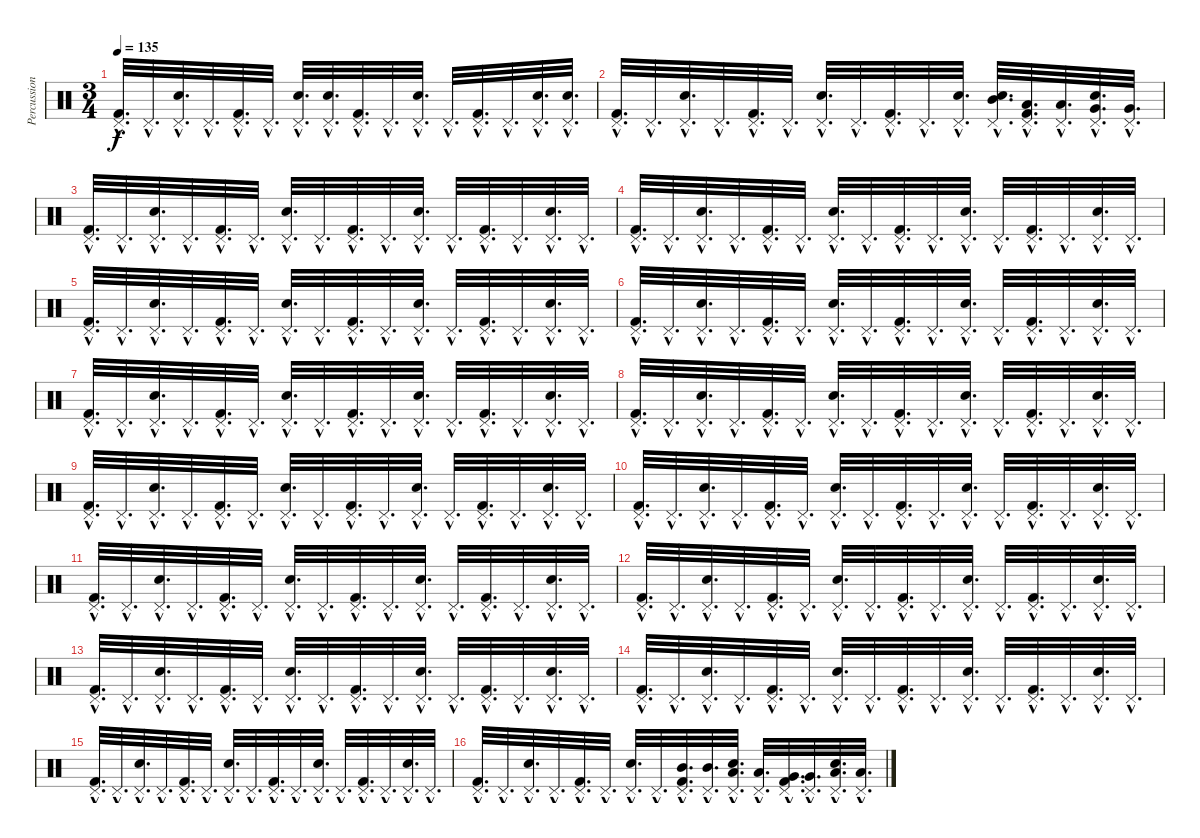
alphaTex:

\track ("Percussion" "Percussion") {instrument percussion}
\staff {score}
\articulation defaults
\ts (3 4)
\tempo 135
\clef neutral
\ks c
("Kick (hit) 2"{hac} "Pedal Hi-Hat (hit)"{hac}).32{d dy f} "Pedal Hi-Hat (hit)"{hac}.32{d} ("Pedal Hi-Hat (hit)"{hac} "Electric Snare (hit)"{hac}).32{d} "Pedal Hi-Hat (hit)"{hac}.32{d} ("Kick (hit) 2"{hac} "Pedal Hi-Hat (hit)"{hac}).32{d} "Pedal Hi-Hat (hit)"{hac}.32{d} ("Pedal Hi-Hat (hit)"{hac} "Electric Snare (hit)"{hac}).32{d} ("Pedal Hi-Hat (hit)"{hac} "Electric Snare (hit)"{hac}).32{d} ("Kick (hit) 2"{hac} "Pedal Hi-Hat (hit)"{hac}).32{d} "Pedal Hi-Hat (hit)"{hac}.32{d} ("Pedal Hi-Hat (hit)"{hac} "Electric Snare (hit)"{hac}).32{d} "Pedal Hi-Hat (hit)"{hac}.32{d} ("Kick (hit) 2"{hac} "Pedal Hi-Hat (hit)"{hac}).32{d} "Pedal Hi-Hat (hit)"{hac}.32{d} ("Pedal Hi-Hat (hit)"{hac} "Electric Snare (hit)"{hac}).32{d} ("Pedal Hi-Hat (hit)"{hac} "Electric Snare (hit)"{hac}).32{d} |
("Kick (hit) 2"{hac} "Pedal Hi-Hat (hit)"{hac}).32{d} "Pedal Hi-Hat (hit)"{hac}.32{d} ("Pedal Hi-Hat (hit)"{hac} "Electric Snare (hit)"{hac}).32{d} "Pedal Hi-Hat (hit)"{hac}.32{d} ("Kick (hit) 2"{hac} "Pedal Hi-Hat (hit)"{hac}).32{d} "Pedal Hi-Hat (hit)"{hac}.32{d} ("Pedal Hi-Hat (hit)"{hac} "Electric Snare (hit)"{hac}).32{d} "Pedal Hi-Hat (hit)"{hac}.32{d} ("Kick (hit) 2"{hac} "Pedal Hi-Hat (hit)"{hac}).32{d} "Pedal Hi-Hat (hit)"{hac}.32{d} ("Pedal Hi-Hat (hit)"{hac} "Electric Snare (hit)"{hac}).32{d} ("Pedal Hi-Hat (hit)"{hac} "Electric Snare (hit)"{hac} "Mid Tom (hit)"{hac}).32{d} ("Kick (hit) 2"{hac} "Pedal Hi-Hat (hit)"{hac} "Low Tom (hit)"{hac}).32{d} ("Pedal Hi-Hat (hit)"{hac} "Low Tom (hit)"{hac}).32{d} ("Pedal Hi-Hat (hit)"{hac} "Electric Snare (hit)"{hac} "Very Low Tom (hit)"{hac}).32{d} ("Pedal Hi-Hat (hit)"{hac} "Very Low Tom (hit)"{hac}).32{d} |
("Kick (hit) 2"{hac} "Pedal Hi-Hat (hit)"{hac}).32{d} "Pedal Hi-Hat (hit)"{hac}.32{d} ("Pedal Hi-Hat (hit)"{hac} "Electric Snare (hit)"{hac}).32{d} "Pedal Hi-Hat (hit)"{hac}.32{d} ("Kick (hit) 2"{hac} "Pedal Hi-Hat (hit)"{hac}).32{d} "Pedal Hi-Hat (hit)"{hac}.32{d} ("Pedal Hi-Hat (hit)"{hac} "Electric Snare (hit)"{hac}).32{d} "Pedal Hi-Hat (hit)"{hac}.32{d} ("Kick (hit) 2"{hac} "Pedal Hi-Hat (hit)"{hac}).32{d} "Pedal Hi-Hat (hit)"{hac}.32{d} ("Pedal Hi-Hat (hit)"{hac} "Electric Snare (hit)"{hac}).32{d} "Pedal Hi-Hat (hit)"{hac}.32{d} ("Kick (hit) 2"{hac} "Pedal Hi-Hat (hit)"{hac}).32{d} "Pedal Hi-Hat (hit)"{hac}.32{d} ("Pedal Hi-Hat (hit)"{hac} "Electric Snare (hit)"{hac}).32{d} "Pedal Hi-Hat (hit)"{hac}.32{d} |
("Kick (hit) 2"{hac} "Pedal Hi-Hat (hit)"{hac}).32{d} "Pedal Hi-Hat (hit)"{hac}.32{d} ("Pedal Hi-Hat (hit)"{hac} "Electric Snare (hit)"{hac}).32{d} "Pedal Hi-Hat (hit)"{hac}.32{d} ("Kick (hit) 2"{hac} "Pedal Hi-Hat (hit)"{hac}).32{d} "Pedal Hi-Hat (hit)"{hac}.32{d} ("Pedal Hi-Hat (hit)"{hac} "Electric Snare (hit)"{hac}).32{d} "Pedal Hi-Hat (hit)"{hac}.32{d} ("Kick (hit) 2"{hac} "Pedal Hi-Hat (hit)"{hac}).32{d} "Pedal Hi-Hat (hit)"{hac}.32{d} ("Pedal Hi-Hat (hit)"{hac} "Electric Snare (hit)"{hac}).32{d} "Pedal Hi-Hat (hit)"{hac}.32{d} ("Kick (hit) 2"{hac} "Pedal Hi-Hat (hit)"{hac}).32{d} "Pedal Hi-Hat (hit)"{hac}.32{d} ("Pedal Hi-Hat (hit)"{hac} "Electric Snare (hit)"{hac}).32{d} "Pedal Hi-Hat (hit)"{hac}.32{d} |
("Kick (hit) 2"{hac} "Pedal Hi-Hat (hit)"{hac}).32{d} "Pedal Hi-Hat (hit)"{hac}.32{d} ("Pedal Hi-Hat (hit)"{hac} "Electric Snare (hit)"{hac}).32{d} "Pedal Hi-Hat (hit)"{hac}.32{d} ("Kick (hit) 2"{hac} "Pedal Hi-Hat (hit)"{hac}).32{d} "Pedal Hi-Hat (hit)"{hac}.32{d} ("Pedal Hi-Hat (hit)"{hac} "Electric Snare (hit)"{hac}).32{d} "Pedal Hi-Hat (hit)"{hac}.32{d} ("Kick (hit) 2"{hac} "Pedal Hi-Hat (hit)"{hac}).32{d} "Pedal Hi-Hat (hit)"{hac}.32{d} ("Pedal Hi-Hat (hit)"{hac} "Electric Snare (hit)"{hac}).32{d} "Pedal Hi-Hat (hit)"{hac}.32{d} ("Kick (hit) 2"{hac} "Pedal Hi-Hat (hit)"{hac}).32{d} "Pedal Hi-Hat (hit)"{hac}.32{d} ("Pedal Hi-Hat (hit)"{hac} "Electric Snare (hit)"{hac}).32{d} "Pedal Hi-Hat (hit)"{hac}.32{d} |
("Kick (hit) 2"{hac} "Pedal Hi-Hat (hit)"{hac}).32{d} "Pedal Hi-Hat (hit)"{hac}.32{d} ("Pedal Hi-Hat (hit)"{hac} "Electric Snare (hit)"{hac}).32{d} "Pedal Hi-Hat (hit)"{hac}.32{d} ("Kick (hit) 2"{hac} "Pedal Hi-Hat (hit)"{hac}).32{d} "Pedal Hi-Hat (hit)"{hac}.32{d} ("Pedal Hi-Hat (hit)"{hac} "Electric Snare (hit)"{hac}).32{d} "Pedal Hi-Hat (hit)"{hac}.32{d} ("Kick (hit) 2"{hac} "Pedal Hi-Hat (hit)"{hac}).32{d} "Pedal Hi-Hat (hit)"{hac}.32{d} ("Pedal Hi-Hat (hit)"{hac} "Electric Snare (hit)"{hac}).32{d} "Pedal Hi-Hat (hit)"{hac}.32{d} ("Kick (hit) 2"{hac} "Pedal Hi-Hat (hit)"{hac}).32{d} "Pedal Hi-Hat (hit)"{hac}.32{d} ("Pedal Hi-Hat (hit)"{hac} "Electric Snare (hit)"{hac}).32{d} "Pedal Hi-Hat (hit)"{hac}.32{d} |
("Kick (hit) 2"{hac} "Pedal Hi-Hat (hit)"{hac}).32{d} "Pedal Hi-Hat (hit)"{hac}.32{d} ("Pedal Hi-Hat (hit)"{hac} "Electric Snare (hit)"{hac}).32{d} "Pedal Hi-Hat (hit)"{hac}.32{d} ("Kick (hit) 2"{hac} "Pedal Hi-Hat (hit)"{hac}).32{d} "Pedal Hi-Hat (hit)"{hac}.32{d} ("Pedal Hi-Hat (hit)"{hac} "Electric Snare (hit)"{hac}).32{d} "Pedal Hi-Hat (hit)"{hac}.32{d} ("Kick (hit) 2"{hac} "Pedal Hi-Hat (hit)"{hac}).32{d} "Pedal Hi-Hat (hit)"{hac}.32{d} ("Pedal Hi-Hat (hit)"{hac} "Electric Snare (hit)"{hac}).32{d} "Pedal Hi-Hat (hit)"{hac}.32{d} ("Kick (hit) 2"{hac} "Pedal Hi-Hat (hit)"{hac}).32{d} "Pedal Hi-Hat (hit)"{hac}.32{d} ("Pedal Hi-Hat (hit)"{hac} "Electric Snare (hit)"{hac}).32{d} "Pedal Hi-Hat (hit)"{hac}.32{d} |
("Kick (hit) 2"{hac} "Pedal Hi-Hat (hit)"{hac}).32{d} "Pedal Hi-Hat (hit)"{hac}.32{d} ("Pedal Hi-Hat (hit)"{hac} "Electric Snare (hit)"{hac}).32{d} "Pedal Hi-Hat (hit)"{hac}.32{d} ("Kick (hit) 2"{hac} "Pedal Hi-Hat (hit)"{hac}).32{d} "Pedal Hi-Hat (hit)"{hac}.32{d} ("Pedal Hi-Hat (hit)"{hac} "Electric Snare (hit)"{hac}).32{d} "Pedal Hi-Hat (hit)"{hac}.32{d} ("Kick (hit) 2"{hac} "Pedal Hi-Hat (hit)"{hac}).32{d} "Pedal Hi-Hat (hit)"{hac}.32{d} ("Pedal Hi-Hat (hit)"{hac} "Electric Snare (hit)"{hac}).32{d} "Pedal Hi-Hat (hit)"{hac}.32{d} ("Kick (hit) 2"{hac} "Pedal Hi-Hat (hit)"{hac}).32{d} "Pedal Hi-Hat (hit)"{hac}.32{d} ("Pedal Hi-Hat (hit)"{hac} "Electric Snare (hit)"{hac}).32{d} "Pedal Hi-Hat (hit)"{hac}.32{d} |
("Kick (hit) 2"{hac} "Pedal Hi-Hat (hit)"{hac}).32{d} "Pedal Hi-Hat (hit)"{hac}.32{d} ("Pedal Hi-Hat (hit)"{hac} "Electric Snare (hit)"{hac}).32{d} "Pedal Hi-Hat (hit)"{hac}.32{d} ("Kick (hit) 2"{hac} "Pedal Hi-Hat (hit)"{hac}).32{d} "Pedal Hi-Hat (hit)"{hac}.32{d} ("Pedal Hi-Hat (hit)"{hac} "Electric Snare (hit)"{hac}).32{d} "Pedal Hi-Hat (hit)"{hac}.32{d} ("Kick (hit) 2"{hac} "Pedal Hi-Hat (hit)"{hac}).32{d} "Pedal Hi-Hat (hit)"{hac}.32{d} ("Pedal Hi-Hat (hit)"{hac} "Electric Snare (hit)"{hac}).32{d} "Pedal Hi-Hat (hit)"{hac}.32{d} ("Kick (hit) 2"{hac} "Pedal Hi-Hat (hit)"{hac}).32{d} "Pedal Hi-Hat (hit)"{hac}.32{d} ("Pedal Hi-Hat (hit)"{hac} "Electric Snare (hit)"{hac}).32{d} "Pedal Hi-Hat (hit)"{hac}.32{d} |
("Kick (hit) 2"{hac} "Pedal Hi-Hat (hit)"{hac}).32{d} "Pedal Hi-Hat (hit)"{hac}.32{d} ("Pedal Hi-Hat (hit)"{hac} "Electric Snare (hit)"{hac}).32{d} "Pedal Hi-Hat (hit)"{hac}.32{d} ("Kick (hit) 2"{hac} "Pedal Hi-Hat (hit)"{hac}).32{d} "Pedal Hi-Hat (hit)"{hac}.32{d} ("Pedal Hi-Hat (hit)"{hac} "Electric Snare (hit)"{hac}).32{d} "Pedal Hi-Hat (hit)"{hac}.32{d} ("Kick (hit) 2"{hac} "Pedal Hi-Hat (hit)"{hac}).32{d} "Pedal Hi-Hat (hit)"{hac}.32{d} ("Pedal Hi-Hat (hit)"{hac} "Electric Snare (hit)"{hac}).32{d} "Pedal Hi-Hat (hit)"{hac}.32{d} ("Kick (hit) 2"{hac} "Pedal Hi-Hat (hit)"{hac}).32{d} "Pedal Hi-Hat (hit)"{hac}.32{d} ("Pedal Hi-Hat (hit)"{hac} "Electric Snare (hit)"{hac}).32{d} "Pedal Hi-Hat (hit)"{hac}.32{d} |
("Kick (hit) 2"{hac} "Pedal Hi-Hat (hit)"{hac}).32{d} "Pedal Hi-Hat (hit)"{hac}.32{d} ("Pedal Hi-Hat (hit)"{hac} "Electric Snare (hit)"{hac}).32{d} "Pedal Hi-Hat (hit)"{hac}.32{d} ("Kick (hit) 2"{hac} "Pedal Hi-Hat (hit)"{hac}).32{d} "Pedal Hi-Hat (hit)"{hac}.32{d} ("Pedal Hi-Hat (hit)"{hac} "Electric Snare (hit)"{hac}).32{d} "Pedal Hi-Hat (hit)"{hac}.32{d} ("Kick (hit) 2"{hac} "Pedal Hi-Hat (hit)"{hac}).32{d} "Pedal Hi-Hat (hit)"{hac}.32{d} ("Pedal Hi-Hat (hit)"{hac} "Electric Snare (hit)"{hac}).32{d} "Pedal Hi-Hat (hit)"{hac}.32{d} ("Kick (hit) 2"{hac} "Pedal Hi-Hat (hit)"{hac}).32{d} "Pedal Hi-Hat (hit)"{hac}.32{d} ("Pedal Hi-Hat (hit)"{hac} "Electric Snare (hit)"{hac}).32{d} "Pedal Hi-Hat (hit)"{hac}.32{d} |
("Kick (hit) 2"{hac} "Pedal Hi-Hat (hit)"{hac}).32{d} "Pedal Hi-Hat (hit)"{hac}.32{d} ("Pedal Hi-Hat (hit)"{hac} "Electric Snare (hit)"{hac}).32{d} "Pedal Hi-Hat (hit)"{hac}.32{d} ("Kick (hit) 2"{hac} "Pedal Hi-Hat (hit)"{hac}).32{d} "Pedal Hi-Hat (hit)"{hac}.32{d} ("Pedal Hi-Hat (hit)"{hac} "Electric Snare (hit)"{hac}).32{d} "Pedal Hi-Hat (hit)"{hac}.32{d} ("Kick (hit) 2"{hac} "Pedal Hi-Hat (hit)"{hac}).32{d} "Pedal Hi-Hat (hit)"{hac}.32{d} ("Pedal Hi-Hat (hit)"{hac} "Electric Snare (hit)"{hac}).32{d} "Pedal Hi-Hat (hit)"{hac}.32{d} ("Kick (hit) 2"{hac} "Pedal Hi-Hat (hit)"{hac}).32{d} "Pedal Hi-Hat (hit)"{hac}.32{d} ("Pedal Hi-Hat (hit)"{hac} "Electric Snare (hit)"{hac}).32{d} "Pedal Hi-Hat (hit)"{hac}.32{d} |
("Kick (hit) 2"{hac} "Pedal Hi-Hat (hit)"{hac}).32{d} "Pedal Hi-Hat (hit)"{hac}.32{d} ("Pedal Hi-Hat (hit)"{hac} "Electric Snare (hit)"{hac}).32{d} "Pedal Hi-Hat (hit)"{hac}.32{d} ("Kick (hit) 2"{hac} "Pedal Hi-Hat (hit)"{hac}).32{d} "Pedal Hi-Hat (hit)"{hac}.32{d} ("Pedal Hi-Hat (hit)"{hac} "Electric Snare (hit)"{hac}).32{d} "Pedal Hi-Hat (hit)"{hac}.32{d} ("Kick (hit) 2"{hac} "Pedal Hi-Hat (hit)"{hac}).32{d} "Pedal Hi-Hat (hit)"{hac}.32{d} ("Pedal Hi-Hat (hit)"{hac} "Electric Snare (hit)"{hac}).32{d} "Pedal Hi-Hat (hit)"{hac}.32{d} ("Kick (hit) 2"{hac} "Pedal Hi-Hat (hit)"{hac}).32{d} "Pedal Hi-Hat (hit)"{hac}.32{d} ("Pedal Hi-Hat (hit)"{hac} "Electric Snare (hit)"{hac}).32{d} "Pedal Hi-Hat (hit)"{hac}.32{d} |
("Kick (hit) 2"{hac} "Pedal Hi-Hat (hit)"{hac}).32{d} "Pedal Hi-Hat (hit)"{hac}.32{d} ("Pedal Hi-Hat (hit)"{hac} "Electric Snare (hit)"{hac}).32{d} "Pedal Hi-Hat (hit)"{hac}.32{d} ("Kick (hit) 2"{hac} "Pedal Hi-Hat (hit)"{hac}).32{d} "Pedal Hi-Hat (hit)"{hac}.32{d} ("Pedal Hi-Hat (hit)"{hac} "Electric Snare (hit)"{hac}).32{d} "Pedal Hi-Hat (hit)"{hac}.32{d} ("Kick (hit) 2"{hac} "Pedal Hi-Hat (hit)"{hac}).32{d} "Pedal Hi-Hat (hit)"{hac}.32{d} ("Pedal Hi-Hat (hit)"{hac} "Electric Snare (hit)"{hac}).32{d} "Pedal Hi-Hat (hit)"{hac}.32{d} ("Kick (hit) 2"{hac} "Pedal Hi-Hat (hit)"{hac}).32{d} "Pedal Hi-Hat (hit)"{hac}.32{d} ("Pedal Hi-Hat (hit)"{hac} "Electric Snare (hit)"{hac}).32{d} "Pedal Hi-Hat (hit)"{hac}.32{d} |
("Kick (hit) 2"{hac} "Pedal Hi-Hat (hit)"{hac}).32{d} "Pedal Hi-Hat (hit)"{hac}.32{d} ("Pedal Hi-Hat (hit)"{hac} "Electric Snare (hit)"{hac}).32{d} "Pedal Hi-Hat (hit)"{hac}.32{d} ("Kick (hit) 2"{hac} "Pedal Hi-Hat (hit)"{hac}).32{d} "Pedal Hi-Hat (hit)"{hac}.32{d} ("Pedal Hi-Hat (hit)"{hac} "Electric Snare (hit)"{hac}).32{d} "Pedal Hi-Hat (hit)"{hac}.32{d} ("Kick (hit) 2"{hac} "Pedal Hi-Hat (hit)"{hac}).32{d} "Pedal Hi-Hat (hit)"{hac}.32{d} ("Pedal Hi-Hat (hit)"{hac} "Electric Snare (hit)"{hac}).32{d} "Pedal Hi-Hat (hit)"{hac}.32{d} ("Kick (hit) 2"{hac} "Pedal Hi-Hat (hit)"{hac}).32{d} "Pedal Hi-Hat (hit)"{hac}.32{d} ("Pedal Hi-Hat (hit)"{hac} "Electric Snare (hit)"{hac}).32{d} "Pedal Hi-Hat (hit)"{hac}.32{d} |
("Kick (hit) 2"{hac} "Pedal Hi-Hat (hit)"{hac}).32{d} "Pedal Hi-Hat (hit)"{hac}.32{d} ("Pedal Hi-Hat (hit)"{hac} "Electric Snare (hit)"{hac}).32{d} "Pedal Hi-Hat (hit)"{hac}.32{d} ("Kick (hit) 2"{hac} "Pedal Hi-Hat (hit)"{hac}).32{d} "Pedal Hi-Hat (hit)"{hac}.32{d} ("Pedal Hi-Hat (hit)"{hac} "Electric Snare (hit)"{hac}).32{d} "Pedal Hi-Hat (hit)"{hac}.32{d} ("Kick (hit) 2"{hac} "Pedal Hi-Hat (hit)"{hac} "Mid Tom (hit)"{hac}).32{d} ("Pedal Hi-Hat (hit)"{hac} "Mid Tom (hit)"{hac}).32{d} ("Pedal Hi-Hat (hit)"{hac} "Electric Snare (hit)"{hac} "Low Tom (hit)"{hac}).32{d} ("Pedal Hi-Hat (hit)"{hac} "Low Tom (hit)"{hac}).32{d} ("Kick (hit) 2"{hac} "Pedal Hi-Hat (hit)"{hac} "Very Low Tom (hit)"{hac}).32{d} ("Pedal Hi-Hat (hit)"{hac} "Very Low Tom (hit)"{hac}).32{d} ("Pedal Hi-Hat (hit)"{hac} "Electric Snare (hit)"{hac} "Low Floor Tom (hit)"{hac}).32{d} ("Pedal Hi-Hat (hit)"{hac} "Low Floor Tom (hit)"{hac}).32{d}
